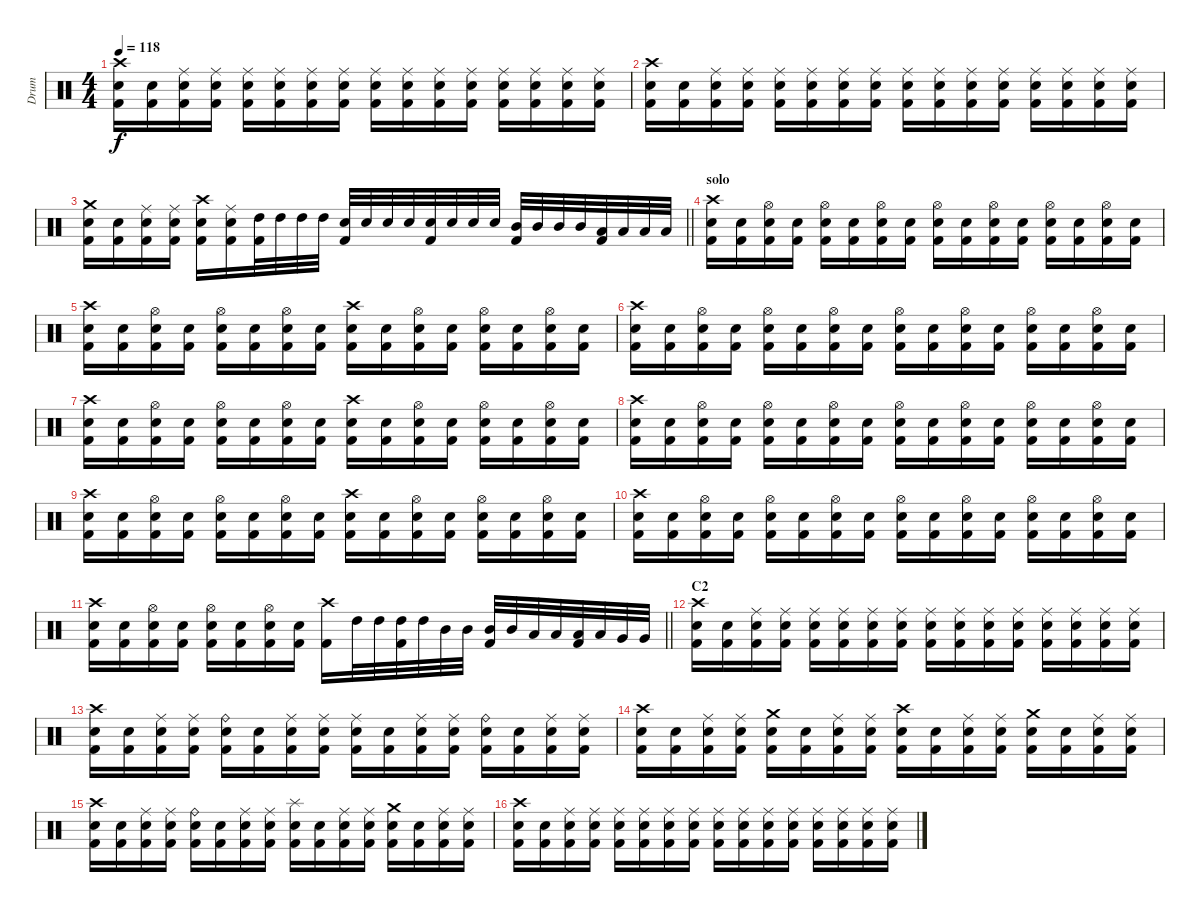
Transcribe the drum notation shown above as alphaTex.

\track ("Drum" "Drum") {instrument percussion}
\staff {score}
\articulation defaults
\ts (4 4)
\tempo 118
\clef neutral
\ks c
("Crash high (hit)" "Electric Snare (hit)" "Kick (hit) 2").16{dy f} ("Electric Snare (hit)" "Kick (hit) 2").16 ("Ride (middle)" "Electric Snare (hit)" "Kick (hit) 2").16 ("Ride (middle)" "Electric Snare (hit)" "Kick (hit) 2").16 ("Ride (middle)" "Electric Snare (hit)" "Kick (hit) 2").16 ("Ride (middle)" "Electric Snare (hit)" "Kick (hit) 2").16 ("Ride (middle)" "Electric Snare (hit)" "Kick (hit) 2").16 ("Ride (middle)" "Electric Snare (hit)" "Kick (hit) 2").16 ("Ride (middle)" "Electric Snare (hit)" "Kick (hit) 2").16 ("Ride (middle)" "Electric Snare (hit)" "Kick (hit) 2").16 ("Ride (middle)" "Electric Snare (hit)" "Kick (hit) 2").16 ("Ride (middle)" "Electric Snare (hit)" "Kick (hit) 2").16 ("Ride (middle)" "Electric Snare (hit)" "Kick (hit) 2").16 ("Ride (middle)" "Electric Snare (hit)" "Kick (hit) 2").16 ("Ride (middle)" "Electric Snare (hit)" "Kick (hit) 2").16 ("Ride (middle)" "Electric Snare (hit)" "Kick (hit) 2").16 |
("Crash high (hit)" "Electric Snare (hit)" "Kick (hit) 2").16 ("Electric Snare (hit)" "Kick (hit) 2").16 ("Ride (middle)" "Electric Snare (hit)" "Kick (hit) 2").16 ("Ride (middle)" "Electric Snare (hit)" "Kick (hit) 2").16 ("Ride (middle)" "Electric Snare (hit)" "Kick (hit) 2").16 ("Ride (middle)" "Electric Snare (hit)" "Kick (hit) 2").16 ("Ride (middle)" "Electric Snare (hit)" "Kick (hit) 2").16 ("Ride (middle)" "Electric Snare (hit)" "Kick (hit) 2").16 ("Ride (middle)" "Electric Snare (hit)" "Kick (hit) 2").16 ("Ride (middle)" "Electric Snare (hit)" "Kick (hit) 2").16 ("Ride (middle)" "Electric Snare (hit)" "Kick (hit) 2").16 ("Ride (middle)" "Electric Snare (hit)" "Kick (hit) 2").16 ("Ride (middle)" "Electric Snare (hit)" "Kick (hit) 2").16 ("Ride (middle)" "Electric Snare (hit)" "Kick (hit) 2").16 ("Ride (middle)" "Electric Snare (hit)" "Kick (hit) 2").16 ("Ride (middle)" "Electric Snare (hit)" "Kick (hit) 2").16 |
\barLineRight lightlight
("Crash medium (hit)" "Electric Snare (hit)" "Kick (hit) 2").16 ("Electric Snare (hit)" "Kick (hit) 2").16 ("Ride (middle)" "Electric Snare (hit)" "Kick (hit) 2").16 ("Ride (middle)" "Electric Snare (hit)" "Kick (hit) 2").16 ("Crash high (hit)" "Electric Snare (hit)" "Kick (hit) 2").16 ("Ride (middle)" "Electric Snare (hit)" "Kick (hit) 2").16 ("High Tom (hit)" "Kick (hit) 2").32 "High Tom (hit)".32 "High Tom (hit)".32 "High Tom (hit)".32 ("Electric Snare (hit)" "Kick (hit) 2").32 "Electric Snare (hit)".32 "Electric Snare (hit)".32 "Electric Snare (hit)".32 ("Electric Snare (hit)" "Kick (hit) 2").32 "Electric Snare (hit)".32 "Electric Snare (hit)".32 "Electric Snare (hit)".32 ("Mid Tom (hit)" "Kick (hit) 2").32 "Mid Tom (hit)".32 "Mid Tom (hit)".32 "Mid Tom (hit)".32 ("Low Tom (hit)" "Kick (hit) 2").32 "Low Tom (hit)".32 "Low Tom (hit)".32 "Low Tom (hit)".32 |
\section ("" "solo")
("Crash high (hit)" "Electric Snare (hit)" "Kick (hit) 2").16 ("Electric Snare (hit)" "Kick (hit) 2").16 ("Hi-Hat (open)" "Electric Snare (hit)" "Kick (hit) 2").16 ("Electric Snare (hit)" "Kick (hit) 2").16 ("Hi-Hat (open)" "Electric Snare (hit)" "Kick (hit) 2").16 ("Electric Snare (hit)" "Kick (hit) 2").16 ("Hi-Hat (open)" "Electric Snare (hit)" "Kick (hit) 2").16 ("Electric Snare (hit)" "Kick (hit) 2").16 ("Hi-Hat (open)" "Electric Snare (hit)" "Kick (hit) 2").16 ("Electric Snare (hit)" "Kick (hit) 2").16 ("Hi-Hat (open)" "Electric Snare (hit)" "Kick (hit) 2").16 ("Electric Snare (hit)" "Kick (hit) 2").16 ("Hi-Hat (open)" "Electric Snare (hit)" "Kick (hit) 2").16 ("Electric Snare (hit)" "Kick (hit) 2").16 ("Hi-Hat (open)" "Electric Snare (hit)" "Kick (hit) 2").16 ("Electric Snare (hit)" "Kick (hit) 2").16 |
("Crash high (hit)" "Electric Snare (hit)" "Kick (hit) 2").16 ("Electric Snare (hit)" "Kick (hit) 2").16 ("Hi-Hat (open)" "Electric Snare (hit)" "Kick (hit) 2").16 ("Electric Snare (hit)" "Kick (hit) 2").16 ("Hi-Hat (open)" "Electric Snare (hit)" "Kick (hit) 2").16 ("Electric Snare (hit)" "Kick (hit) 2").16 ("Hi-Hat (open)" "Electric Snare (hit)" "Kick (hit) 2").16 ("Electric Snare (hit)" "Kick (hit) 2").16 ("Crash high (hit)" "Electric Snare (hit)" "Kick (hit) 2").16 ("Electric Snare (hit)" "Kick (hit) 2").16 ("Hi-Hat (open)" "Electric Snare (hit)" "Kick (hit) 2").16 ("Electric Snare (hit)" "Kick (hit) 2").16 ("Hi-Hat (open)" "Electric Snare (hit)" "Kick (hit) 2").16 ("Electric Snare (hit)" "Kick (hit) 2").16 ("Hi-Hat (open)" "Electric Snare (hit)" "Kick (hit) 2").16 ("Electric Snare (hit)" "Kick (hit) 2").16 |
("Crash high (hit)" "Electric Snare (hit)" "Kick (hit) 2").16 ("Electric Snare (hit)" "Kick (hit) 2").16 ("Hi-Hat (open)" "Electric Snare (hit)" "Kick (hit) 2").16 ("Electric Snare (hit)" "Kick (hit) 2").16 ("Hi-Hat (open)" "Electric Snare (hit)" "Kick (hit) 2").16 ("Electric Snare (hit)" "Kick (hit) 2").16 ("Hi-Hat (open)" "Electric Snare (hit)" "Kick (hit) 2").16 ("Electric Snare (hit)" "Kick (hit) 2").16 ("Hi-Hat (open)" "Electric Snare (hit)" "Kick (hit) 2").16 ("Electric Snare (hit)" "Kick (hit) 2").16 ("Hi-Hat (open)" "Electric Snare (hit)" "Kick (hit) 2").16 ("Electric Snare (hit)" "Kick (hit) 2").16 ("Hi-Hat (open)" "Electric Snare (hit)" "Kick (hit) 2").16 ("Electric Snare (hit)" "Kick (hit) 2").16 ("Hi-Hat (open)" "Electric Snare (hit)" "Kick (hit) 2").16 ("Electric Snare (hit)" "Kick (hit) 2").16 |
("Crash high (hit)" "Electric Snare (hit)" "Kick (hit) 2").16 ("Electric Snare (hit)" "Kick (hit) 2").16 ("Hi-Hat (open)" "Electric Snare (hit)" "Kick (hit) 2").16 ("Electric Snare (hit)" "Kick (hit) 2").16 ("Hi-Hat (open)" "Electric Snare (hit)" "Kick (hit) 2").16 ("Electric Snare (hit)" "Kick (hit) 2").16 ("Hi-Hat (open)" "Electric Snare (hit)" "Kick (hit) 2").16 ("Electric Snare (hit)" "Kick (hit) 2").16 ("Crash high (hit)" "Electric Snare (hit)" "Kick (hit) 2").16 ("Electric Snare (hit)" "Kick (hit) 2").16 ("Hi-Hat (open)" "Electric Snare (hit)" "Kick (hit) 2").16 ("Electric Snare (hit)" "Kick (hit) 2").16 ("Hi-Hat (open)" "Electric Snare (hit)" "Kick (hit) 2").16 ("Electric Snare (hit)" "Kick (hit) 2").16 ("Hi-Hat (open)" "Electric Snare (hit)" "Kick (hit) 2").16 ("Electric Snare (hit)" "Kick (hit) 2").16 |
("Crash high (hit)" "Electric Snare (hit)" "Kick (hit) 2").16 ("Electric Snare (hit)" "Kick (hit) 2").16 ("Hi-Hat (open)" "Electric Snare (hit)" "Kick (hit) 2").16 ("Electric Snare (hit)" "Kick (hit) 2").16 ("Hi-Hat (open)" "Electric Snare (hit)" "Kick (hit) 2").16 ("Electric Snare (hit)" "Kick (hit) 2").16 ("Hi-Hat (open)" "Electric Snare (hit)" "Kick (hit) 2").16 ("Electric Snare (hit)" "Kick (hit) 2").16 ("Hi-Hat (open)" "Electric Snare (hit)" "Kick (hit) 2").16 ("Electric Snare (hit)" "Kick (hit) 2").16 ("Hi-Hat (open)" "Electric Snare (hit)" "Kick (hit) 2").16 ("Electric Snare (hit)" "Kick (hit) 2").16 ("Hi-Hat (open)" "Electric Snare (hit)" "Kick (hit) 2").16 ("Electric Snare (hit)" "Kick (hit) 2").16 ("Hi-Hat (open)" "Electric Snare (hit)" "Kick (hit) 2").16 ("Electric Snare (hit)" "Kick (hit) 2").16 |
("Crash high (hit)" "Electric Snare (hit)" "Kick (hit) 2").16 ("Electric Snare (hit)" "Kick (hit) 2").16 ("Hi-Hat (open)" "Electric Snare (hit)" "Kick (hit) 2").16 ("Electric Snare (hit)" "Kick (hit) 2").16 ("Hi-Hat (open)" "Electric Snare (hit)" "Kick (hit) 2").16 ("Electric Snare (hit)" "Kick (hit) 2").16 ("Hi-Hat (open)" "Electric Snare (hit)" "Kick (hit) 2").16 ("Electric Snare (hit)" "Kick (hit) 2").16 ("Crash high (hit)" "Electric Snare (hit)" "Kick (hit) 2").16 ("Electric Snare (hit)" "Kick (hit) 2").16 ("Hi-Hat (open)" "Electric Snare (hit)" "Kick (hit) 2").16 ("Electric Snare (hit)" "Kick (hit) 2").16 ("Hi-Hat (open)" "Electric Snare (hit)" "Kick (hit) 2").16 ("Electric Snare (hit)" "Kick (hit) 2").16 ("Hi-Hat (open)" "Electric Snare (hit)" "Kick (hit) 2").16 ("Electric Snare (hit)" "Kick (hit) 2").16 |
("Crash high (hit)" "Electric Snare (hit)" "Kick (hit) 2").16 ("Electric Snare (hit)" "Kick (hit) 2").16 ("Hi-Hat (open)" "Electric Snare (hit)" "Kick (hit) 2").16 ("Electric Snare (hit)" "Kick (hit) 2").16 ("Hi-Hat (open)" "Electric Snare (hit)" "Kick (hit) 2").16 ("Electric Snare (hit)" "Kick (hit) 2").16 ("Hi-Hat (open)" "Electric Snare (hit)" "Kick (hit) 2").16 ("Electric Snare (hit)" "Kick (hit) 2").16 ("Hi-Hat (open)" "Electric Snare (hit)" "Kick (hit) 2").16 ("Electric Snare (hit)" "Kick (hit) 2").16 ("Hi-Hat (open)" "Electric Snare (hit)" "Kick (hit) 2").16 ("Electric Snare (hit)" "Kick (hit) 2").16 ("Hi-Hat (open)" "Electric Snare (hit)" "Kick (hit) 2").16 ("Electric Snare (hit)" "Kick (hit) 2").16 ("Hi-Hat (open)" "Electric Snare (hit)" "Kick (hit) 2").16 ("Electric Snare (hit)" "Kick (hit) 2").16 |
\barLineRight lightlight
("Crash high (hit)" "Electric Snare (hit)" "Kick (hit) 2").16 ("Electric Snare (hit)" "Kick (hit) 2").16 ("Hi-Hat (open)" "Electric Snare (hit)" "Kick (hit) 2").16 ("Electric Snare (hit)" "Kick (hit) 2").16 ("Hi-Hat (open)" "Electric Snare (hit)" "Kick (hit) 2").16 ("Electric Snare (hit)" "Kick (hit) 2").16 ("Hi-Hat (open)" "Electric Snare (hit)" "Kick (hit) 2").16 ("Electric Snare (hit)" "Kick (hit) 2").16 ("Crash high (hit)" "Kick (hit) 2").16 "High Tom (hit)".32 "High Tom (hit)".32 ("High Tom (hit)" "Kick (hit) 2").32 "High Tom (hit)".32 "Mid Tom (hit)".32 "Mid Tom (hit)".32 ("Mid Tom (hit)" "Kick (hit) 2").32 "Mid Tom (hit)".32 "Low Tom (hit)".32 "Low Tom (hit)".32 ("Low Tom (hit)" "Kick (hit) 2").32 "Low Tom (hit)".32 "Very Low Tom (hit)".32 "Very Low Tom (hit)".32 |
\section ("" "C2")
("Crash high (hit)" "Electric Snare (hit)" "Kick (hit) 2").16 ("Electric Snare (hit)" "Kick (hit) 2").16 ("Ride (middle)" "Electric Snare (hit)" "Kick (hit) 2").16 ("Ride (middle)" "Electric Snare (hit)" "Kick (hit) 2").16 ("Ride (middle)" "Electric Snare (hit)" "Kick (hit) 2").16 ("Ride (middle)" "Electric Snare (hit)" "Kick (hit) 2").16 ("Ride (middle)" "Electric Snare (hit)" "Kick (hit) 2").16 ("Ride (middle)" "Electric Snare (hit)" "Kick (hit) 2").16 ("Ride (middle)" "Electric Snare (hit)" "Kick (hit) 2").16 ("Ride (middle)" "Electric Snare (hit)" "Kick (hit) 2").16 ("Ride (middle)" "Electric Snare (hit)" "Kick (hit) 2").16 ("Ride (middle)" "Electric Snare (hit)" "Kick (hit) 2").16 ("Ride (middle)" "Electric Snare (hit)" "Kick (hit) 2").16 ("Ride (middle)" "Electric Snare (hit)" "Kick (hit) 2").16 ("Ride (middle)" "Electric Snare (hit)" "Kick (hit) 2").16 ("Ride (middle)" "Electric Snare (hit)" "Kick (hit) 2").16 |
("Crash high (hit)" "Electric Snare (hit)" "Kick (hit) 2").16 ("Electric Snare (hit)" "Kick (hit) 2").16 ("Ride (middle)" "Electric Snare (hit)" "Kick (hit) 2").16 ("Ride (middle)" "Electric Snare (hit)" "Kick (hit) 2").16 ("Ride (bell)" "Electric Snare (hit)" "Kick (hit) 2").16 ("Electric Snare (hit)" "Kick (hit) 2").16 ("Ride (middle)" "Electric Snare (hit)" "Kick (hit) 2").16 ("Ride (middle)" "Electric Snare (hit)" "Kick (hit) 2").16 ("Ride (middle)" "Electric Snare (hit)" "Kick (hit) 2").16 ("Electric Snare (hit)" "Kick (hit) 2").16 ("Ride (middle)" "Electric Snare (hit)" "Kick (hit) 2").16 ("Ride (middle)" "Electric Snare (hit)" "Kick (hit) 2").16 ("Ride (bell)" "Electric Snare (hit)" "Kick (hit) 2").16 ("Electric Snare (hit)" "Kick (hit) 2").16 ("Ride (middle)" "Electric Snare (hit)" "Kick (hit) 2").16 ("Ride (middle)" "Electric Snare (hit)" "Kick (hit) 2").16 |
("Crash high (hit)" "Electric Snare (hit)" "Kick (hit) 2").16 ("Electric Snare (hit)" "Kick (hit) 2").16 ("Ride (middle)" "Electric Snare (hit)" "Kick (hit) 2").16 ("Ride (middle)" "Electric Snare (hit)" "Kick (hit) 2").16 ("Crash medium (hit)" "Electric Snare (hit)" "Kick (hit) 2").16 ("Electric Snare (hit)" "Kick (hit) 2").16 ("Ride (middle)" "Electric Snare (hit)" "Kick (hit) 2").16 ("Ride (middle)" "Electric Snare (hit)" "Kick (hit) 2").16 ("Crash high (hit)" "Electric Snare (hit)" "Kick (hit) 2").16 ("Electric Snare (hit)" "Kick (hit) 2").16 ("Ride (middle)" "Electric Snare (hit)" "Kick (hit) 2").16 ("Ride (middle)" "Electric Snare (hit)" "Kick (hit) 2").16 ("Crash medium (hit)" "Electric Snare (hit)" "Kick (hit) 2").16 ("Electric Snare (hit)" "Kick (hit) 2").16 ("Ride (middle)" "Electric Snare (hit)" "Kick (hit) 2").16 ("Ride (middle)" "Electric Snare (hit)" "Kick (hit) 2").16 |
("Crash high (hit)" "Electric Snare (hit)" "Kick (hit) 2").16 ("Electric Snare (hit)" "Kick (hit) 2").16 ("Ride (middle)" "Electric Snare (hit)" "Kick (hit) 2").16 ("Ride (middle)" "Electric Snare (hit)" "Kick (hit) 2").16 ("Ride (bell)" "Electric Snare (hit)" "Kick (hit) 2").16 ("Electric Snare (hit)" "Kick (hit) 2").16 ("Ride (middle)" "Electric Snare (hit)" "Kick (hit) 2").16 ("Ride (middle)" "Electric Snare (hit)" "Kick (hit) 2").16 ("Splash (hit)" "Electric Snare (hit)" "Kick (hit) 2").16 ("Electric Snare (hit)" "Kick (hit) 2").16 ("Ride (middle)" "Electric Snare (hit)" "Kick (hit) 2").16 ("Ride (middle)" "Electric Snare (hit)" "Kick (hit) 2").16 ("Crash medium (hit)" "Electric Snare (hit)" "Kick (hit) 2").16 ("Electric Snare (hit)" "Kick (hit) 2").16 ("Ride (middle)" "Electric Snare (hit)" "Kick (hit) 2").16 ("Ride (middle)" "Electric Snare (hit)" "Kick (hit) 2").16 |
("Crash high (hit)" "Electric Snare (hit)" "Kick (hit) 2").16 ("Electric Snare (hit)" "Kick (hit) 2").16 ("Ride (middle)" "Electric Snare (hit)" "Kick (hit) 2").16 ("Ride (middle)" "Electric Snare (hit)" "Kick (hit) 2").16 ("Ride (middle)" "Electric Snare (hit)" "Kick (hit) 2").16 ("Ride (middle)" "Electric Snare (hit)" "Kick (hit) 2").16 ("Ride (middle)" "Electric Snare (hit)" "Kick (hit) 2").16 ("Ride (middle)" "Electric Snare (hit)" "Kick (hit) 2").16 ("Ride (middle)" "Electric Snare (hit)" "Kick (hit) 2").16 ("Ride (middle)" "Electric Snare (hit)" "Kick (hit) 2").16 ("Ride (middle)" "Electric Snare (hit)" "Kick (hit) 2").16 ("Ride (middle)" "Electric Snare (hit)" "Kick (hit) 2").16 ("Ride (middle)" "Electric Snare (hit)" "Kick (hit) 2").16 ("Ride (middle)" "Electric Snare (hit)" "Kick (hit) 2").16 ("Ride (middle)" "Electric Snare (hit)" "Kick (hit) 2").16 ("Ride (middle)" "Electric Snare (hit)" "Kick (hit) 2").16
